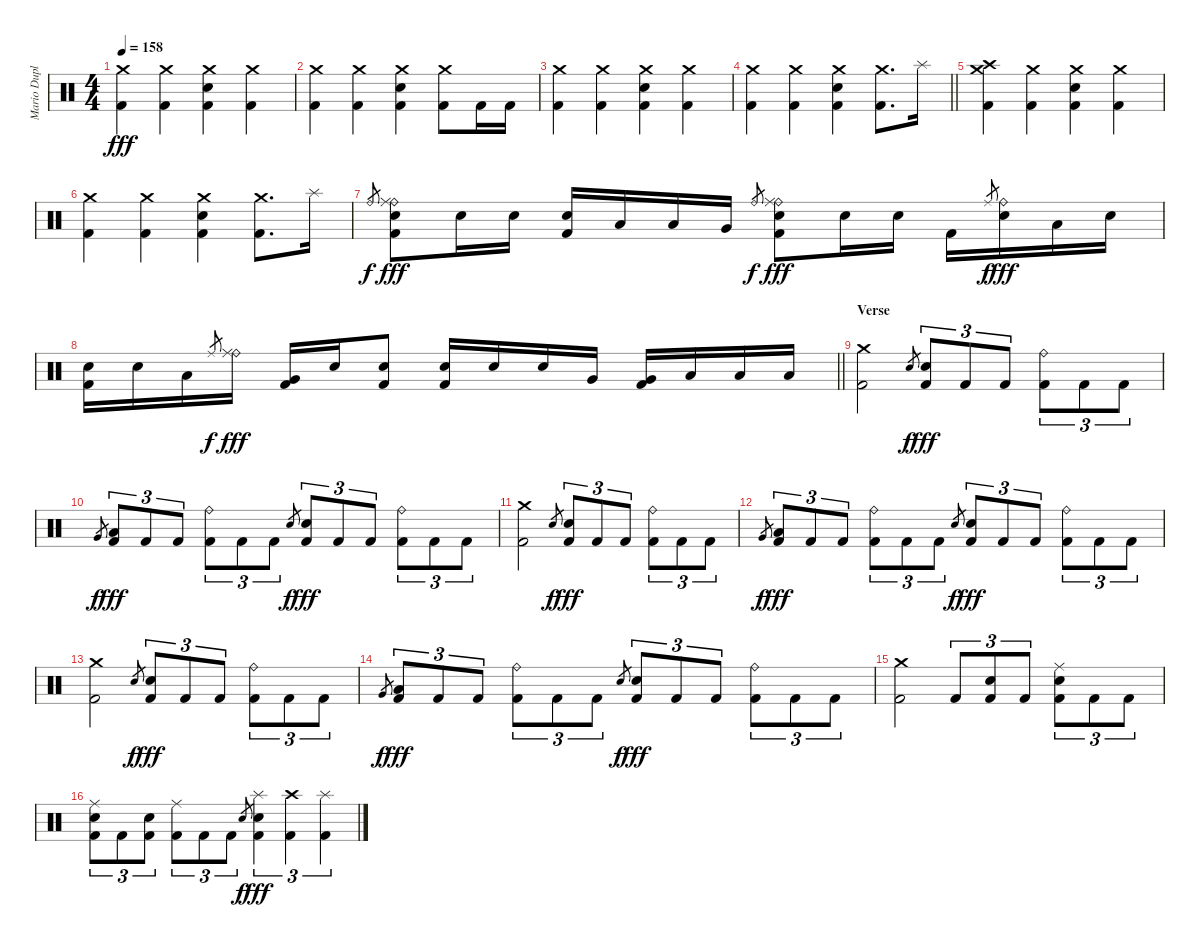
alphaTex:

\track ("Mario Duplantier" "Mario Dupl") {instrument percussion}
\staff {score}
\articulation defaults
\ts (4 4)
\section ("" "")
\tempo 158
\clef neutral
\ks c
("Crash medium (hit)" "Kick (hit) 2").4{dy fff} ("Crash medium (hit)" "Kick (hit) 2").4 ("Crash medium (hit)" "Electric Snare (hit)" "Kick (hit) 2").4 ("Crash medium (hit)" "Kick (hit) 2").4 |
("Crash medium (hit)" "Kick (hit) 2").4 ("Crash medium (hit)" "Kick (hit) 2").4 ("Crash medium (hit)" "Electric Snare (hit)" "Kick (hit) 2").4 ("Crash medium (hit)" "Kick (hit) 2").8 "Kick (hit) 2".16 "Kick (hit) 2".16 |
("Crash medium (hit)" "Kick (hit) 2").4 ("Crash medium (hit)" "Kick (hit) 2").4 ("Crash medium (hit)" "Electric Snare (hit)" "Kick (hit) 2").4 ("Crash medium (hit)" "Kick (hit) 2").4 |
\barLineRight lightlight
("Crash medium (hit)" "Kick (hit) 2").4 ("Crash medium (hit)" "Kick (hit) 2").4 ("Crash medium (hit)" "Electric Snare (hit)" "Kick (hit) 2").4 ("Crash medium (hit)" "Kick (hit) 2").8{d} "Splash (hit)".16 |
("Crash medium (hit)" "Crash high (hit)" "Kick (hit) 2").4 ("Crash medium (hit)" "Kick (hit) 2").4 ("Crash medium (hit)" "Electric Snare (hit)" "Kick (hit) 2").4 ("Crash medium (hit)" "Kick (hit) 2").4 |
("Crash medium (hit)" "Kick (hit) 2").4 ("Crash medium (hit)" "Kick (hit) 2").4 ("Crash medium (hit)" "Electric Snare (hit)" "Kick (hit) 2").4 ("Crash medium (hit)" "Kick (hit) 2").8{d} "Splash (hit)".16 |
"Ride (bell)".8{gr dy f} ("Ride (bell)" "Ride (middle)" "Electric Snare (hit)" "Kick (hit) 2").8{dy fff} "Electric Snare (hit)".16 "Electric Snare (hit)".16 ("Electric Snare (hit)" "Kick (hit) 2").16 "Low Tom (hit)".16 "Low Tom (hit)".16 "Very Low Tom (hit)".16 "Ride (bell)".8{gr dy f} ("Ride (bell)" "Ride (middle)" "Electric Snare (hit)" "Kick (hit) 2").8{dy fff} "Electric Snare (hit)".16 "Electric Snare (hit)".16 "Kick (hit) 2".16 "Ride (middle)".8{gr dy f} ("Ride (bell)" "Electric Snare (hit)").16{dy fff} "Low Tom (hit)".16 "Electric Snare (hit)".16 |
\barLineRight lightlight
("Electric Snare (hit)" "Kick (hit) 2").16 "Electric Snare (hit)".16 "Low Floor Tom (hit)".16 "Ride (middle)".8{gr dy f} ("Ride (bell)" "Ride (middle)").16{dy fff} ("Very Low Tom (hit)" "Kick (hit) 2").16 "Electric Snare (hit)".16 ("Electric Snare (hit)" "Kick (hit) 2").8 ("Electric Snare (hit)" "Kick (hit) 2").16 "Electric Snare (hit)".16 "Electric Snare (hit)".16 "Very Low Tom (hit)".16 ("Very Low Tom (hit)" "Kick (hit) 2").16 "Low Floor Tom (hit)".16 "Low Floor Tom (hit)".16 "Low Floor Tom (hit)".16 |
\section ("" "Verse")
("Crash medium (hit)" "Kick (hit) 2").2 "Electric Snare (hit)".8{gr dy f} ("Electric Snare (hit)" "Kick (hit) 2").8{tu (3 2) dy fff} "Kick (hit) 2".8{tu (3 2)} "Kick (hit) 2".8{tu (3 2)} ("Ride (bell)" "Kick (hit) 2").8{tu (3 2)} "Kick (hit) 2".8{tu (3 2)} "Kick (hit) 2".8{tu (3 2)} |
"Very Low Tom (hit)".8{gr dy f} ("Low Tom (hit)" "Kick (hit) 2").8{tu (3 2) dy fff} "Kick (hit) 2".8{tu (3 2)} "Kick (hit) 2".8{tu (3 2)} ("Ride (bell)" "Kick (hit) 2").8{tu (3 2)} "Kick (hit) 2".8{tu (3 2)} "Kick (hit) 2".8{tu (3 2)} "Electric Snare (hit)".8{gr dy f} ("Electric Snare (hit)" "Kick (hit) 2").8{tu (3 2) dy fff} "Kick (hit) 2".8{tu (3 2)} "Kick (hit) 2".8{tu (3 2)} ("Ride (bell)" "Kick (hit) 2").8{tu (3 2)} "Kick (hit) 2".8{tu (3 2)} "Kick (hit) 2".8{tu (3 2)} |
("Crash medium (hit)" "Kick (hit) 2").2 "Electric Snare (hit)".8{gr dy f} ("Electric Snare (hit)" "Kick (hit) 2").8{tu (3 2) dy fff} "Kick (hit) 2".8{tu (3 2)} "Kick (hit) 2".8{tu (3 2)} ("Ride (bell)" "Kick (hit) 2").8{tu (3 2)} "Kick (hit) 2".8{tu (3 2)} "Kick (hit) 2".8{tu (3 2)} |
"Very Low Tom (hit)".8{gr dy f} ("Low Tom (hit)" "Kick (hit) 2").8{tu (3 2) dy fff} "Kick (hit) 2".8{tu (3 2)} "Kick (hit) 2".8{tu (3 2)} ("Ride (bell)" "Kick (hit) 2").8{tu (3 2)} "Kick (hit) 2".8{tu (3 2)} "Kick (hit) 2".8{tu (3 2)} "Electric Snare (hit)".8{gr dy f} ("Electric Snare (hit)" "Kick (hit) 2").8{tu (3 2) dy fff} "Kick (hit) 2".8{tu (3 2)} "Kick (hit) 2".8{tu (3 2)} ("Ride (bell)" "Kick (hit) 2").8{tu (3 2)} "Kick (hit) 2".8{tu (3 2)} "Kick (hit) 2".8{tu (3 2)} |
("Crash medium (hit)" "Kick (hit) 2").2 "Electric Snare (hit)".8{gr dy f} ("Electric Snare (hit)" "Kick (hit) 2").8{tu (3 2) dy fff} "Kick (hit) 2".8{tu (3 2)} "Kick (hit) 2".8{tu (3 2)} ("Ride (bell)" "Kick (hit) 2").8{tu (3 2)} "Kick (hit) 2".8{tu (3 2)} "Kick (hit) 2".8{tu (3 2)} |
"Very Low Tom (hit)".8{gr dy f} ("Low Tom (hit)" "Kick (hit) 2").8{tu (3 2) dy fff} "Kick (hit) 2".8{tu (3 2)} "Kick (hit) 2".8{tu (3 2)} ("Ride (bell)" "Kick (hit) 2").8{tu (3 2)} "Kick (hit) 2".8{tu (3 2)} "Kick (hit) 2".8{tu (3 2)} "Electric Snare (hit)".8{gr dy f} ("Electric Snare (hit)" "Kick (hit) 2").8{tu (3 2) dy fff} "Kick (hit) 2".8{tu (3 2)} "Kick (hit) 2".8{tu (3 2)} ("Ride (bell)" "Kick (hit) 2").8{tu (3 2)} "Kick (hit) 2".8{tu (3 2)} "Kick (hit) 2".8{tu (3 2)} |
("Crash medium (hit)" "Kick (hit) 2").2 "Kick (hit) 2".8{tu (3 2)} ("Electric Snare (hit)" "Kick (hit) 2").8{tu (3 2)} "Kick (hit) 2".8{tu (3 2)} ("Ride (middle)" "Electric Snare (hit)" "Kick (hit) 2").8{tu (3 2)} "Kick (hit) 2".8{tu (3 2)} "Kick (hit) 2".8{tu (3 2)} |
("Ride (middle)" "Electric Snare (hit)" "Kick (hit) 2").8{tu (3 2)} "Kick (hit) 2".8{tu (3 2)} ("Electric Snare (hit)" "Kick (hit) 2").8{tu (3 2)} ("Ride (middle)" "Kick (hit) 2").8{tu (3 2)} "Kick (hit) 2".8{tu (3 2)} "Kick (hit) 2".8{tu (3 2)} "Electric Snare (hit)".8{gr dy f} ("Splash (hit)" "Electric Snare (hit)" "Kick (hit) 2").4{tu (3 2) dy fff} ("Crash high (hit)" "Kick (hit) 2").4{tu (3 2)} ("Splash (hit)" "Kick (hit) 2").4{tu (3 2)}
